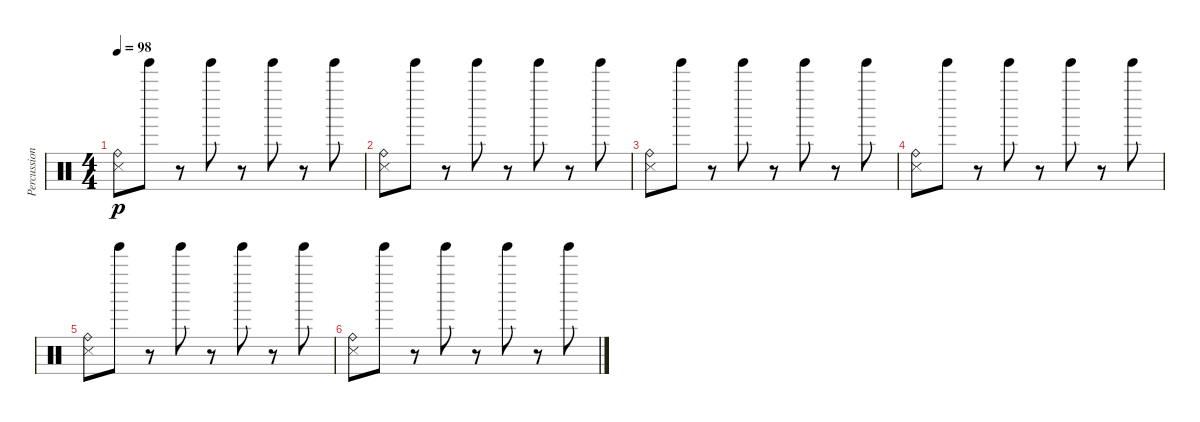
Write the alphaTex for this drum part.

\track ("Percussion" "Percussion") {instrument percussion}
\staff {score}
\articulation defaults
\ts (4 4)
\tempo 98
\clef neutral
\ks c
("Metronome (hit)" "Ride (bell)").8{dy p} "Tinkle Bell (hit)".8 r.8 "Tinkle Bell (hit)".8 r.8 "Tinkle Bell (hit)".8 r.8 "Tinkle Bell (hit)".8 |
("Metronome (hit)" "Ride (bell)").8 "Tinkle Bell (hit)".8 r.8 "Tinkle Bell (hit)".8 r.8 "Tinkle Bell (hit)".8 r.8 "Tinkle Bell (hit)".8 |
("Metronome (hit)" "Ride (bell)").8 "Tinkle Bell (hit)".8 r.8 "Tinkle Bell (hit)".8 r.8 "Tinkle Bell (hit)".8 r.8 "Tinkle Bell (hit)".8 |
("Metronome (hit)" "Ride (bell)").8 "Tinkle Bell (hit)".8 r.8 "Tinkle Bell (hit)".8 r.8 "Tinkle Bell (hit)".8 r.8 "Tinkle Bell (hit)".8 |
("Metronome (hit)" "Ride (bell)").8 "Tinkle Bell (hit)".8 r.8 "Tinkle Bell (hit)".8 r.8 "Tinkle Bell (hit)".8 r.8 "Tinkle Bell (hit)".8 |
("Metronome (hit)" "Ride (bell)").8 "Tinkle Bell (hit)".8 r.8 "Tinkle Bell (hit)".8 r.8 "Tinkle Bell (hit)".8 r.8 "Tinkle Bell (hit)".8
